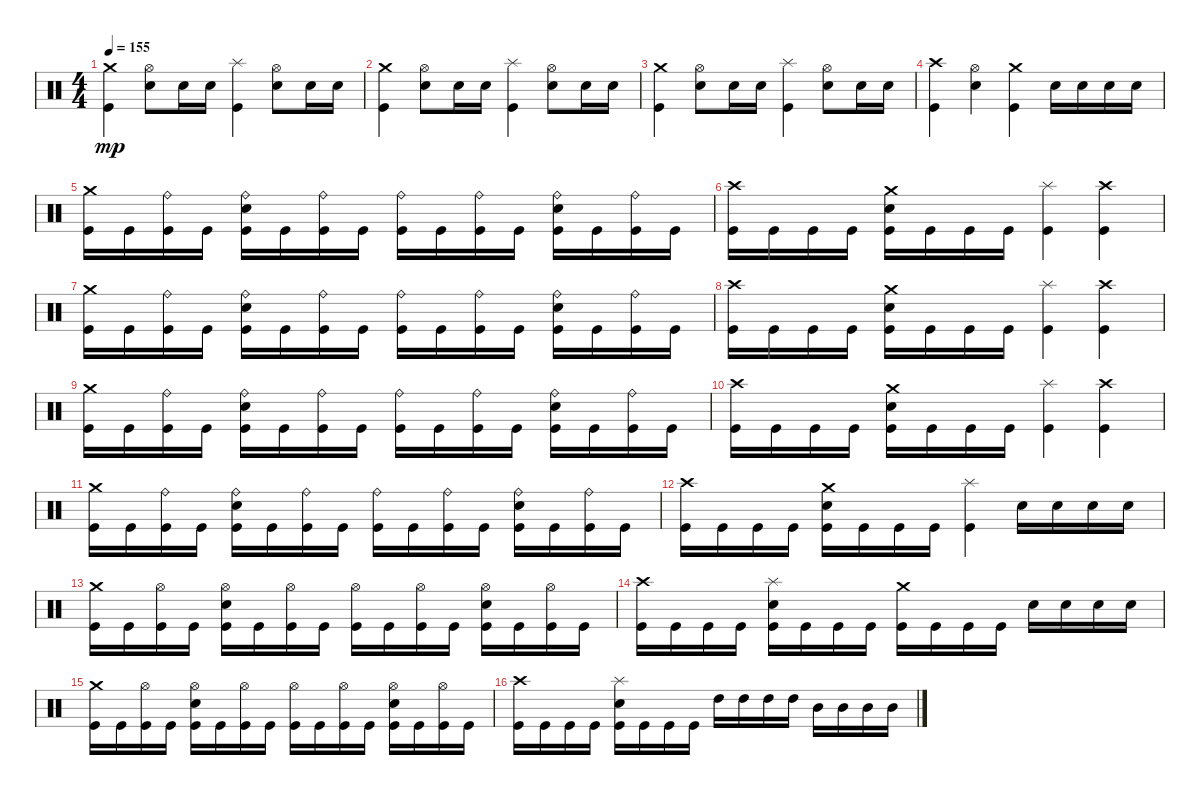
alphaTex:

\track "" {instrument percussion}
\staff {score}
\articulation defaults
\ts (4 4)
\tempo 155
\clef neutral
\ks c
("Crash medium (hit)" "Kick (hit)").4{dy mp} ("Snare (hit) 2" "Hi-Hat (open)").8 "Snare (hit) 2".16 "Snare (hit) 2".16 ("Splash (hit)" "Kick (hit)").4 ("Snare (hit) 2" "Hi-Hat (open)").8 "Snare (hit) 2".16 "Snare (hit) 2".16 |
("Crash medium (hit)" "Kick (hit)").4 ("Snare (hit) 2" "Hi-Hat (open)").8 "Snare (hit) 2".16 "Snare (hit) 2".16 ("Splash (hit)" "Kick (hit)").4 ("Snare (hit) 2" "Hi-Hat (open)").8 "Snare (hit) 2".16 "Snare (hit) 2".16 |
("Crash medium (hit)" "Kick (hit)").4 ("Snare (hit) 2" "Hi-Hat (open)").8 "Snare (hit) 2".16 "Snare (hit) 2".16 ("Splash (hit)" "Kick (hit)").4 ("Snare (hit) 2" "Hi-Hat (open)").8 "Snare (hit) 2".16 "Snare (hit) 2".16 |
("Crash high (hit)" "Kick (hit)").4 ("Snare (hit) 2" "Hi-Hat (open)").4 ("Kick (hit)" "Crash medium (hit)").4 "Snare (hit) 2".16 "Snare (hit) 2".16 "Snare (hit) 2".16 "Snare (hit) 2".16 |
("Kick (hit)" "Crash medium (hit)").16 "Kick (hit)".16 ("Kick (hit)" "Ride (bell)").16 "Kick (hit)".16 ("Kick (hit)" "Snare (hit) 2" "Ride (bell)").16 "Kick (hit)".16 ("Kick (hit)" "Ride (bell)").16 "Kick (hit)".16 ("Kick (hit)" "Ride (bell)").16 "Kick (hit)".16 ("Kick (hit)" "Ride (bell)").16 "Kick (hit)".16 ("Kick (hit)" "Snare (hit) 2" "Ride (bell)").16 "Kick (hit)".16 ("Kick (hit)" "Ride (bell)").16 "Kick (hit)".16 |
("Kick (hit)" "Crash high (hit)").16 "Kick (hit)".16 "Kick (hit)".16 "Kick (hit)".16 ("Kick (hit)" "Snare (hit) 2" "Crash medium (hit)").16 "Kick (hit)".16 "Kick (hit)".16 "Kick (hit)".16 ("Kick (hit)" "Splash (hit)").4 ("Kick (hit)" "Crash high (hit)").4 |
("Kick (hit)" "Crash medium (hit)").16 "Kick (hit)".16 ("Kick (hit)" "Ride (bell)").16 "Kick (hit)".16 ("Kick (hit)" "Snare (hit) 2" "Ride (bell)").16 "Kick (hit)".16 ("Kick (hit)" "Ride (bell)").16 "Kick (hit)".16 ("Kick (hit)" "Ride (bell)").16 "Kick (hit)".16 ("Kick (hit)" "Ride (bell)").16 "Kick (hit)".16 ("Kick (hit)" "Snare (hit) 2" "Ride (bell)").16 "Kick (hit)".16 ("Kick (hit)" "Ride (bell)").16 "Kick (hit)".16 |
("Kick (hit)" "Crash high (hit)").16 "Kick (hit)".16 "Kick (hit)".16 "Kick (hit)".16 ("Kick (hit)" "Snare (hit) 2" "Crash medium (hit)").16 "Kick (hit)".16 "Kick (hit)".16 "Kick (hit)".16 ("Kick (hit)" "Splash (hit)").4 ("Kick (hit)" "Crash high (hit)").4 |
("Kick (hit)" "Crash medium (hit)").16 "Kick (hit)".16 ("Kick (hit)" "Ride (bell)").16 "Kick (hit)".16 ("Kick (hit)" "Snare (hit) 2" "Ride (bell)").16 "Kick (hit)".16 ("Kick (hit)" "Ride (bell)").16 "Kick (hit)".16 ("Kick (hit)" "Ride (bell)").16 "Kick (hit)".16 ("Kick (hit)" "Ride (bell)").16 "Kick (hit)".16 ("Kick (hit)" "Snare (hit) 2" "Ride (bell)").16 "Kick (hit)".16 ("Kick (hit)" "Ride (bell)").16 "Kick (hit)".16 |
("Kick (hit)" "Crash high (hit)").16 "Kick (hit)".16 "Kick (hit)".16 "Kick (hit)".16 ("Kick (hit)" "Snare (hit) 2" "Crash medium (hit)").16 "Kick (hit)".16 "Kick (hit)".16 "Kick (hit)".16 ("Kick (hit)" "Splash (hit)").4 ("Kick (hit)" "Crash high (hit)").4 |
("Kick (hit)" "Crash medium (hit)").16 "Kick (hit)".16 ("Kick (hit)" "Ride (bell)").16 "Kick (hit)".16 ("Kick (hit)" "Snare (hit) 2" "Ride (bell)").16 "Kick (hit)".16 ("Kick (hit)" "Ride (bell)").16 "Kick (hit)".16 ("Kick (hit)" "Ride (bell)").16 "Kick (hit)".16 ("Kick (hit)" "Ride (bell)").16 "Kick (hit)".16 ("Kick (hit)" "Snare (hit) 2" "Ride (bell)").16 "Kick (hit)".16 ("Kick (hit)" "Ride (bell)").16 "Kick (hit)".16 |
("Kick (hit)" "Crash high (hit)").16 "Kick (hit)".16 "Kick (hit)".16 "Kick (hit)".16 ("Kick (hit)" "Snare (hit) 2" "Crash medium (hit)").16 "Kick (hit)".16 "Kick (hit)".16 "Kick (hit)".16 ("Kick (hit)" "Splash (hit)").4 "Snare (hit) 2".16 "Snare (hit) 2".16 "Snare (hit) 2".16 "Snare (hit) 2".16 |
("Crash medium (hit)" "Kick (hit)").16 "Kick (hit)".16 ("Kick (hit)" "Hi-Hat (open)").16 "Kick (hit)".16 ("Kick (hit)" "Snare (hit) 2" "Hi-Hat (open)").16 "Kick (hit)".16 ("Kick (hit)" "Hi-Hat (open)").16 "Kick (hit)".16 ("Kick (hit)" "Hi-Hat (open)").16 "Kick (hit)".16 ("Kick (hit)" "Hi-Hat (open)").16 "Kick (hit)".16 ("Kick (hit)" "Snare (hit) 2" "Hi-Hat (open)").16 "Kick (hit)".16 ("Kick (hit)" "Hi-Hat (open)").16 "Kick (hit)".16 |
("Kick (hit)" "Crash high (hit)").16 "Kick (hit)".16 "Kick (hit)".16 "Kick (hit)".16 ("Kick (hit)" "Snare (hit) 2" "Splash (hit)").16 "Kick (hit)".16 "Kick (hit)".16 "Kick (hit)".16 ("Kick (hit)" "Crash medium (hit)").16 "Kick (hit)".16 "Kick (hit)".16 "Kick (hit)".16 "Snare (hit) 2".16 "Snare (hit) 2".16 "Snare (hit) 2".16 "Snare (hit) 2".16 |
("Crash medium (hit)" "Kick (hit)").16 "Kick (hit)".16 ("Kick (hit)" "Hi-Hat (open)").16 "Kick (hit)".16 ("Kick (hit)" "Snare (hit) 2" "Hi-Hat (open)").16 "Kick (hit)".16 ("Kick (hit)" "Hi-Hat (open)").16 "Kick (hit)".16 ("Kick (hit)" "Hi-Hat (open)").16 "Kick (hit)".16 ("Kick (hit)" "Hi-Hat (open)").16 "Kick (hit)".16 ("Kick (hit)" "Snare (hit) 2" "Hi-Hat (open)").16 "Kick (hit)".16 ("Kick (hit)" "Hi-Hat (open)").16 "Kick (hit)".16 |
("Kick (hit)" "Crash high (hit)").16 "Kick (hit)".16 "Kick (hit)".16 "Kick (hit)".16 ("Kick (hit)" "Snare (hit) 2" "Splash (hit)").16 "Kick (hit)".16 "Kick (hit)".16 "Kick (hit)".16 "High Tom (hit)".16 "High Tom (hit)".16 "High Tom (hit)".16 "High Tom (hit)".16 "Mid Tom (hit)".16 "Mid Tom (hit)".16 "Mid Tom (hit)".16 "Mid Tom (hit)".16
